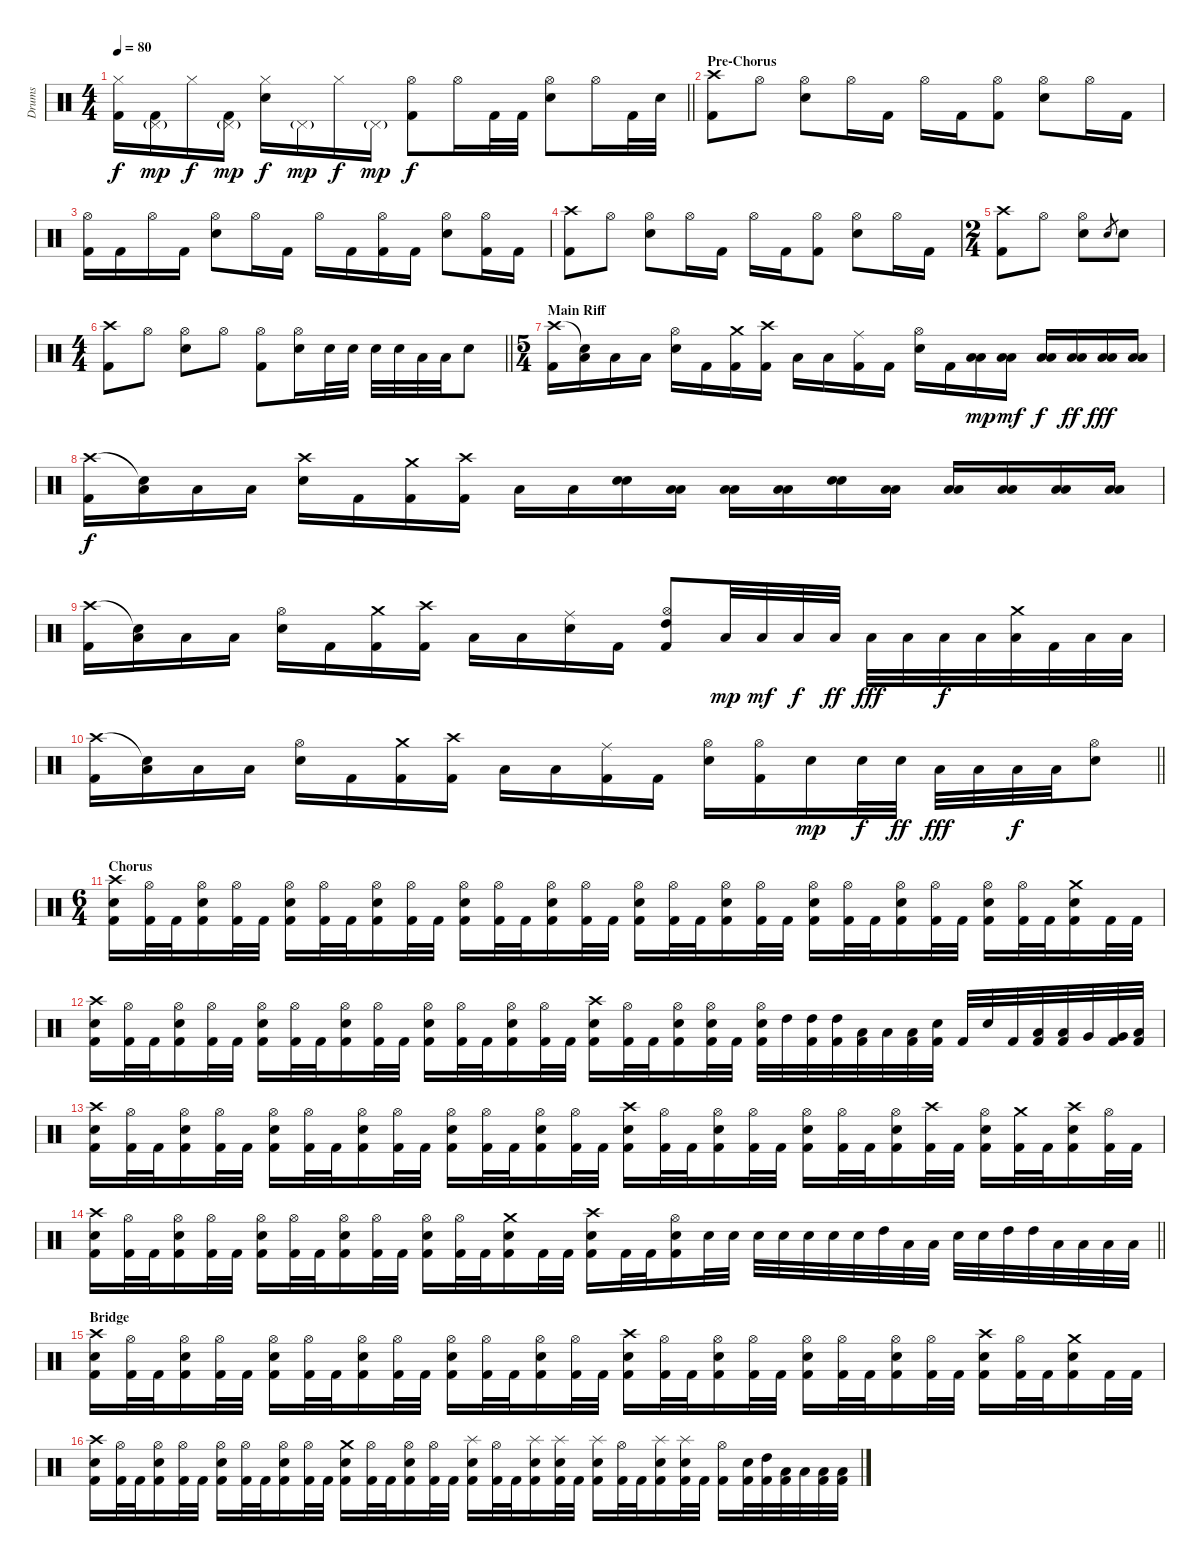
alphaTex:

\track ("Drums" "Drums") {instrument percussion}
\staff {score}
\articulation defaults
\ts (4 4)
\tempo 80
\clef neutral
\barLineRight lightlight
\ks c
("Hi-Hat (closed)" "Kick (hit) 2").16{dy f} ("Pedal Hi-Hat (hit)"{g} "Kick (hit) 2").16{dy mp} "Hi-Hat (closed)".16{dy f} ("Pedal Hi-Hat (hit)"{g} "Kick (hit) 2").16{dy mp} ("Hi-Hat (closed)" "Electric Snare (hit)").16{dy f} "Pedal Hi-Hat (hit)"{g}.16{dy mp} "Hi-Hat (closed)".16{dy f} "Pedal Hi-Hat (hit)"{g}.16{dy mp} ("Hi-Hat (open)" "Kick (hit) 2").8{dy f} "Hi-Hat (open)".16 "Kick (hit) 2".32 "Kick (hit) 2".32 ("Hi-Hat (open)" "Electric Snare (hit)").8 "Hi-Hat (open)".16 "Kick (hit) 2".32 "Electric Snare (hit)".32 |
\section ("" "Pre-Chorus")
("Crash high (hit)" "Kick (hit) 2").8 "Hi-Hat (open)".8 ("Hi-Hat (open)" "Electric Snare (hit)").8 "Hi-Hat (open)".16 "Kick (hit) 2".16 "Hi-Hat (open)".16 "Kick (hit) 2".16 ("Hi-Hat (open)" "Kick (hit) 2").8 ("Hi-Hat (open)" "Electric Snare (hit)").8 "Hi-Hat (open)".16 "Kick (hit) 2".16 |
("Hi-Hat (open)" "Kick (hit) 2").16 "Kick (hit) 2".16 "Hi-Hat (open)".16 "Kick (hit) 2".16 ("Hi-Hat (open)" "Electric Snare (hit)").8 "Hi-Hat (open)".16 "Kick (hit) 2".16 "Hi-Hat (open)".16 "Kick (hit) 2".16 ("Hi-Hat (open)" "Kick (hit) 2").16 "Kick (hit) 2".16 ("Hi-Hat (open)" "Electric Snare (hit)").8 ("Hi-Hat (open)" "Kick (hit) 2").16 "Kick (hit) 2".16 |
("Crash high (hit)" "Kick (hit) 2").8 "Hi-Hat (open)".8 ("Hi-Hat (open)" "Electric Snare (hit)").8 "Hi-Hat (open)".16 "Kick (hit) 2".16 "Hi-Hat (open)".16 "Kick (hit) 2".16 ("Hi-Hat (open)" "Kick (hit) 2").8 ("Hi-Hat (open)" "Electric Snare (hit)").8 "Hi-Hat (open)".16 "Kick (hit) 2".16 |
\ts (2 4)
("Crash high (hit)" "Kick (hit) 2").8 "Hi-Hat (open)".8 ("Hi-Hat (open)" "Electric Snare (hit)").8 "Electric Snare (hit)".8{gr} "Electric Snare (hit)".8 |
\ts (4 4)
\barLineRight lightlight
("Crash high (hit)" "Kick (hit) 2").8 "Hi-Hat (open)".8 ("Hi-Hat (open)" "Electric Snare (hit)").8 "Hi-Hat (open)".8 ("Hi-Hat (open)" "Kick (hit) 2").8 ("Hi-Hat (open)" "Electric Snare (hit)").16 "Electric Snare (hit)".32 "Electric Snare (hit)".32 "Electric Snare (hit)".32 "Electric Snare (hit)".32 "Low Tom (hit)".32 "Low Floor Tom (hit)".32 "Electric Snare (hit)".8 |
\ts (5 4)
\section ("" "Main Riff")
("Crash high (hit)" "Kick (hit) 2").16 ("Snare (hit)"{t} "Low Floor Tom (hit)").16 "Low Floor Tom (hit)".16 "Low Floor Tom (hit)".16 ("Hi-Hat (open)" "Electric Snare (hit)").16 "Kick (hit) 2".16 ("Crash medium (hit)" "Kick (hit) 2").16 ("Crash high (hit)" "Kick (hit) 2").16 "Low Floor Tom (hit)".16 "Low Floor Tom (hit)".16 ("Ride (middle)" "Kick (hit) 2").16 "Kick (hit) 2".16 ("Hi-Hat (open)" "Electric Snare (hit)").16 "Kick (hit) 2".16 ("Low Tom (hit)" "Low Floor Tom (hit)").16{dy mp} ("Low Tom (hit)" "Low Floor Tom (hit)").16{dy mf} ("Low Tom (hit)" "Low Floor Tom (hit)").16{dy f} ("Low Tom (hit)" "Low Floor Tom (hit)").16{dy ff} ("Low Tom (hit)" "Low Floor Tom (hit)").16{dy fff} ("Low Tom (hit)" "Low Floor Tom (hit)").16 |
("Crash high (hit)" "Kick (hit) 2").16{dy f} ("Snare (hit)"{t} "Low Floor Tom (hit)").16 "Low Floor Tom (hit)".16 "Low Floor Tom (hit)".16 ("Crash high (hit)" "Electric Snare (hit)").16 "Kick (hit) 2".16 ("Crash medium (hit)" "Kick (hit) 2").16 ("Crash high (hit)" "Kick (hit) 2").16 "Low Floor Tom (hit)".16 "Low Floor Tom (hit)".16 ("Electric Snare (hit)" "Electric Snare (hit)").16 ("Low Tom (hit)" "Low Tom (hit)").16 ("Low Floor Tom (hit)" "Low Floor Tom (hit)").16 ("Low Floor Tom (hit)" "Low Floor Tom (hit)").16 ("Electric Snare (hit)" "Electric Snare (hit)").16 ("Low Tom (hit)" "Low Tom (hit)").16 ("Low Floor Tom (hit)" "Low Floor Tom (hit)").16 ("Low Floor Tom (hit)" "Low Floor Tom (hit)").16 ("Low Tom (hit)" "Low Floor Tom (hit)").16 ("Low Tom (hit)" "Low Floor Tom (hit)").16 |
("Crash high (hit)" "Kick (hit) 2").16 ("Snare (hit)"{t} "Low Floor Tom (hit)").16 "Low Floor Tom (hit)".16 "Low Floor Tom (hit)".16 ("Hi-Hat (open)" "Electric Snare (hit)").16 "Kick (hit) 2".16 ("Crash medium (hit)" "Kick (hit) 2").16 ("Crash high (hit)" "Kick (hit) 2").16 "Low Floor Tom (hit)".16 "Low Floor Tom (hit)".16 ("Ride (middle)" "Electric Snare (hit)").16 "Kick (hit) 2".16 ("Hi-Hat (open)" "High Tom (hit)" "Kick (hit) 2").8 "Low Tom (hit)".32{dy mp} "Low Tom (hit)".32{dy mf} "Low Tom (hit)".32{dy f} "Low Tom (hit)".32{dy ff} "Low Tom (hit)".32{dy fff} "Low Tom (hit)".32 "Low Tom (hit)".32{dy f} "Low Tom (hit)".32 ("Crash medium (hit)" "Low Tom (hit)").32 "Kick (hit) 2".32 "Low Tom (hit)".32 "Low Tom (hit)".32 |
\barLineRight lightlight
("Crash high (hit)" "Kick (hit) 2").16 ("Snare (hit)"{t} "Low Floor Tom (hit)").16 "Low Floor Tom (hit)".16 "Low Floor Tom (hit)".16 ("Hi-Hat (open)" "Electric Snare (hit)").16 "Kick (hit) 2".16 ("Crash medium (hit)" "Kick (hit) 2").16 ("Crash high (hit)" "Kick (hit) 2").16 "Low Floor Tom (hit)".16 "Low Floor Tom (hit)".16 ("Ride (middle)" "Kick (hit) 2").16 "Kick (hit) 2".16 ("Hi-Hat (open)" "Electric Snare (hit)").16 ("Hi-Hat (open)" "Kick (hit) 2").16 "Electric Snare (hit)".16{dy mp} "Electric Snare (hit)".32{dy f} "Electric Snare (hit)".32{dy ff} "Low Tom (hit)".32{dy fff} "Low Tom (hit)".32 "Low Floor Tom (hit)".32{dy f} "Low Floor Tom (hit)".32 ("Hi-Hat (open)" "Electric Snare (hit)").8 |
\ts (6 4)
\section ("" "Chorus")
("Crash high (hit)" "Electric Snare (hit)" "Kick (hit) 2").16 ("Hi-Hat (open)" "Kick (hit) 2").32 "Kick (hit) 2".32 ("Hi-Hat (open)" "Electric Snare (hit)" "Kick (hit) 2").16 ("Hi-Hat (open)" "Kick (hit) 2").32 "Kick (hit) 2".32 ("Hi-Hat (open)" "Electric Snare (hit)" "Kick (hit) 2").16 ("Hi-Hat (open)" "Kick (hit) 2").32 "Kick (hit) 2".32 ("Hi-Hat (open)" "Electric Snare (hit)" "Kick (hit) 2").16 ("Hi-Hat (open)" "Kick (hit) 2").32 "Kick (hit) 2".32 ("Hi-Hat (open)" "Electric Snare (hit)" "Kick (hit) 2").16 ("Hi-Hat (open)" "Kick (hit) 2").32 "Kick (hit) 2".32 ("Hi-Hat (open)" "Electric Snare (hit)" "Kick (hit) 2").16 ("Hi-Hat (open)" "Kick (hit) 2").32 "Kick (hit) 2".32 ("Hi-Hat (open)" "Electric Snare (hit)" "Kick (hit) 2").16 ("Hi-Hat (open)" "Kick (hit) 2").32 "Kick (hit) 2".32 ("Hi-Hat (open)" "Electric Snare (hit)" "Kick (hit) 2").16 ("Hi-Hat (open)" "Kick (hit) 2").32 "Kick (hit) 2".32 ("Hi-Hat (open)" "Electric Snare (hit)" "Kick (hit) 2").16 ("Hi-Hat (open)" "Kick (hit) 2").32 "Kick (hit) 2".32 ("Hi-Hat (open)" "Electric Snare (hit)" "Kick (hit) 2").16 ("Hi-Hat (open)" "Kick (hit) 2").32 "Kick (hit) 2".32 ("Hi-Hat (open)" "Electric Snare (hit)" "Kick (hit) 2").16 ("Hi-Hat (open)" "Kick (hit) 2").32 "Kick (hit) 2".32 ("Crash medium (hit)" "Electric Snare (hit)" "Kick (hit) 2").16 "Kick (hit) 2".32 "Kick (hit) 2".32 |
("Crash high (hit)" "Electric Snare (hit)" "Kick (hit) 2").16 ("Hi-Hat (open)" "Kick (hit) 2").32 "Kick (hit) 2".32 ("Hi-Hat (open)" "Electric Snare (hit)" "Kick (hit) 2").16 ("Hi-Hat (open)" "Kick (hit) 2").32 "Kick (hit) 2".32 ("Hi-Hat (open)" "Electric Snare (hit)" "Kick (hit) 2").16 ("Hi-Hat (open)" "Kick (hit) 2").32 "Kick (hit) 2".32 ("Hi-Hat (open)" "Electric Snare (hit)" "Kick (hit) 2").16 ("Hi-Hat (open)" "Kick (hit) 2").32 "Kick (hit) 2".32 ("Hi-Hat (open)" "Electric Snare (hit)" "Kick (hit) 2").16 ("Hi-Hat (open)" "Kick (hit) 2").32 "Kick (hit) 2".32 ("Hi-Hat (open)" "Electric Snare (hit)" "Kick (hit) 2").16 ("Hi-Hat (open)" "Kick (hit) 2").32 "Kick (hit) 2".32 ("Crash high (hit)" "Electric Snare (hit)" "Kick (hit) 2").16 ("Hi-Hat (open)" "Kick (hit) 2").32 "Kick (hit) 2".32 ("Hi-Hat (open)" "Electric Snare (hit)" "Kick (hit) 2").16 ("Hi-Hat (open)" "Electric Snare (hit)" "Kick (hit) 2").32 "Kick (hit) 2".32 ("Hi-Hat (open)" "Electric Snare (hit)" "Kick (hit) 2").32 "High Tom (hit)".32 ("High Tom (hit)" "Kick (hit) 2").32 ("High Tom (hit)" "Kick (hit) 2").32 ("Low Tom (hit)" "Kick (hit) 2").32 "Low Tom (hit)".32 ("Low Floor Tom (hit)" "Kick (hit) 2").32 ("Electric Snare (hit)" "Kick (hit) 2").32 "Kick (hit) 2".32 "Electric Snare (hit)".32 "Kick (hit) 2".32 ("Low Tom (hit)" "Kick (hit) 2").32 ("Low Tom (hit)" "Kick (hit) 2").32 "Very Low Tom (hit)".32 ("Very Low Tom (hit)" "Kick (hit) 2").32 ("Low Floor Tom (hit)" "Kick (hit) 2").32 |
("Crash high (hit)" "Electric Snare (hit)" "Kick (hit) 2").16 ("Hi-Hat (open)" "Kick (hit) 2").32 "Kick (hit) 2".32 ("Hi-Hat (open)" "Electric Snare (hit)" "Kick (hit) 2").16 ("Hi-Hat (open)" "Kick (hit) 2").32 "Kick (hit) 2".32 ("Hi-Hat (open)" "Electric Snare (hit)" "Kick (hit) 2").16 ("Hi-Hat (open)" "Kick (hit) 2").32 "Kick (hit) 2".32 ("Hi-Hat (open)" "Electric Snare (hit)" "Kick (hit) 2").16 ("Hi-Hat (open)" "Kick (hit) 2").32 "Kick (hit) 2".32 ("Hi-Hat (open)" "Electric Snare (hit)" "Kick (hit) 2").16 ("Hi-Hat (open)" "Kick (hit) 2").32 "Kick (hit) 2".32 ("Hi-Hat (open)" "Electric Snare (hit)" "Kick (hit) 2").16 ("Hi-Hat (open)" "Kick (hit) 2").32 "Kick (hit) 2".32 ("Crash high (hit)" "Electric Snare (hit)" "Kick (hit) 2").16 ("Hi-Hat (open)" "Kick (hit) 2").32 "Kick (hit) 2".32 ("Hi-Hat (open)" "Electric Snare (hit)" "Kick (hit) 2").16 ("Hi-Hat (open)" "Kick (hit) 2").32 "Kick (hit) 2".32 ("Hi-Hat (open)" "Electric Snare (hit)" "Kick (hit) 2").16 ("Hi-Hat (open)" "Kick (hit) 2").32 "Kick (hit) 2".32 ("Hi-Hat (open)" "Electric Snare (hit)" "Kick (hit) 2").16 ("Crash high (hit)" "Kick (hit) 2").32 "Kick (hit) 2".32 ("Hi-Hat (open)" "Electric Snare (hit)" "Kick (hit) 2").16 ("Crash medium (hit)" "Kick (hit) 2").32 "Kick (hit) 2".32 ("Crash high (hit)" "Electric Snare (hit)" "Kick (hit) 2").16 ("Hi-Hat (open)" "Kick (hit) 2").32 "Kick (hit) 2".32 |
\barLineRight lightlight
("Crash high (hit)" "Electric Snare (hit)" "Kick (hit) 2").16 ("Hi-Hat (open)" "Kick (hit) 2").32 "Kick (hit) 2".32 ("Hi-Hat (open)" "Electric Snare (hit)" "Kick (hit) 2").16 ("Hi-Hat (open)" "Kick (hit) 2").32 "Kick (hit) 2".32 ("Hi-Hat (open)" "Electric Snare (hit)" "Kick (hit) 2").16 ("Hi-Hat (open)" "Kick (hit) 2").32 "Kick (hit) 2".32 ("Hi-Hat (open)" "Electric Snare (hit)" "Kick (hit) 2").16 ("Hi-Hat (open)" "Kick (hit) 2").32 "Kick (hit) 2".32 ("Hi-Hat (open)" "Electric Snare (hit)" "Kick (hit) 2").16 ("Hi-Hat (open)" "Kick (hit) 2").32 "Kick (hit) 2".32 ("Crash medium (hit)" "Electric Snare (hit)" "Kick (hit) 2").16 "Kick (hit) 2".32 "Kick (hit) 2".32 ("Crash high (hit)" "Electric Snare (hit)" "Kick (hit) 2").16 "Kick (hit) 2".32 "Kick (hit) 2".32 ("Hi-Hat (open)" "Electric Snare (hit)" "Kick (hit) 2").16 "Electric Snare (hit)".32 "Electric Snare (hit)".32 "Electric Snare (hit)".32 "Electric Snare (hit)".32 "Electric Snare (hit)".32 "Electric Snare (hit)".32 "Electric Snare (hit)".32 "High Tom (hit)".32 "Low Tom (hit)".32 "Low Floor Tom (hit)".32 "Electric Snare (hit)".32 "Electric Snare (hit)".32 "High Tom (hit)".32 "High Tom (hit)".32 "Low Tom (hit)".32 "Low Tom (hit)".32 "Low Floor Tom (hit)".32 "Low Floor Tom (hit)".32 |
\section ("" "Bridge")
("Crash high (hit)" "Electric Snare (hit)" "Kick (hit) 2").16 ("Hi-Hat (open)" "Kick (hit) 2").32 "Kick (hit) 2".32 ("Hi-Hat (open)" "Electric Snare (hit)" "Kick (hit) 2").16 ("Hi-Hat (open)" "Kick (hit) 2").32 "Kick (hit) 2".32 ("Hi-Hat (open)" "Electric Snare (hit)" "Kick (hit) 2").16 ("Hi-Hat (open)" "Kick (hit) 2").32 "Kick (hit) 2".32 ("Hi-Hat (open)" "Electric Snare (hit)" "Kick (hit) 2").16 ("Hi-Hat (open)" "Kick (hit) 2").32 "Kick (hit) 2".32 ("Hi-Hat (open)" "Electric Snare (hit)" "Kick (hit) 2").16 ("Hi-Hat (open)" "Kick (hit) 2").32 "Kick (hit) 2".32 ("Hi-Hat (open)" "Electric Snare (hit)" "Kick (hit) 2").16 ("Hi-Hat (open)" "Kick (hit) 2").32 "Kick (hit) 2".32 ("Crash high (hit)" "Electric Snare (hit)" "Kick (hit) 2").16 ("Hi-Hat (open)" "Kick (hit) 2").32 "Kick (hit) 2".32 ("Hi-Hat (open)" "Electric Snare (hit)" "Kick (hit) 2").16 ("Hi-Hat (open)" "Kick (hit) 2").32 "Kick (hit) 2".32 ("Hi-Hat (open)" "Electric Snare (hit)" "Kick (hit) 2").16 ("Hi-Hat (open)" "Kick (hit) 2").32 "Kick (hit) 2".32 ("Hi-Hat (open)" "Electric Snare (hit)" "Kick (hit) 2").16 ("Hi-Hat (open)" "Kick (hit) 2").32 "Kick (hit) 2".32 ("Crash high (hit)" "Electric Snare (hit)" "Kick (hit) 2").16 ("Hi-Hat (open)" "Kick (hit) 2").32 "Kick (hit) 2".32 ("Crash medium (hit)" "Electric Snare (hit)" "Kick (hit) 2").16 "Kick (hit) 2".32 "Kick (hit) 2".32 |
("Crash high (hit)" "Electric Snare (hit)" "Kick (hit) 2").16 ("Hi-Hat (open)" "Kick (hit) 2").32 "Kick (hit) 2".32 ("Hi-Hat (open)" "Electric Snare (hit)" "Kick (hit) 2").16 ("Hi-Hat (open)" "Kick (hit) 2").32 "Kick (hit) 2".32 ("Hi-Hat (open)" "Electric Snare (hit)" "Kick (hit) 2").16 ("Hi-Hat (open)" "Kick (hit) 2").32 "Kick (hit) 2".32 ("Hi-Hat (open)" "Electric Snare (hit)" "Kick (hit) 2").16 ("Hi-Hat (open)" "Kick (hit) 2").32 "Kick (hit) 2".32 ("Crash medium (hit)" "Electric Snare (hit)" "Kick (hit) 2").16 ("Hi-Hat (open)" "Kick (hit) 2").32 "Kick (hit) 2".32 ("Hi-Hat (open)" "Electric Snare (hit)" "Kick (hit) 2").16 ("Hi-Hat (open)" "Kick (hit) 2").32 "Kick (hit) 2".32 ("Splash (hit)" "Electric Snare (hit)" "Kick (hit) 2").16 ("Hi-Hat (open)" "Kick (hit) 2").32 "Kick (hit) 2".32 ("Splash (hit)" "Electric Snare (hit)" "Kick (hit) 2").16 ("Splash (hit)" "Electric Snare (hit)" "Kick (hit) 2").32 "Kick (hit) 2".32 ("Splash (hit)" "Electric Snare (hit)" "Kick (hit) 2").16 ("Hi-Hat (open)" "Kick (hit) 2").32 "Kick (hit) 2".32 ("Splash (hit)" "Electric Snare (hit)" "Kick (hit) 2").16 ("Splash (hit)" "Electric Snare (hit)" "Kick (hit) 2").32 "Kick (hit) 2".32 ("Hi-Hat (open)" "Kick (hit) 2").16 ("Electric Snare (hit)" "Kick (hit) 2").32 ("High Tom (hit)" "Kick (hit) 2").32 ("Low Tom (hit)" "Kick (hit) 2").32 "Low Tom (hit)".32 ("Low Floor Tom (hit)" "Kick (hit) 2").32 ("Low Floor Tom (hit)" "Kick (hit) 2").32
